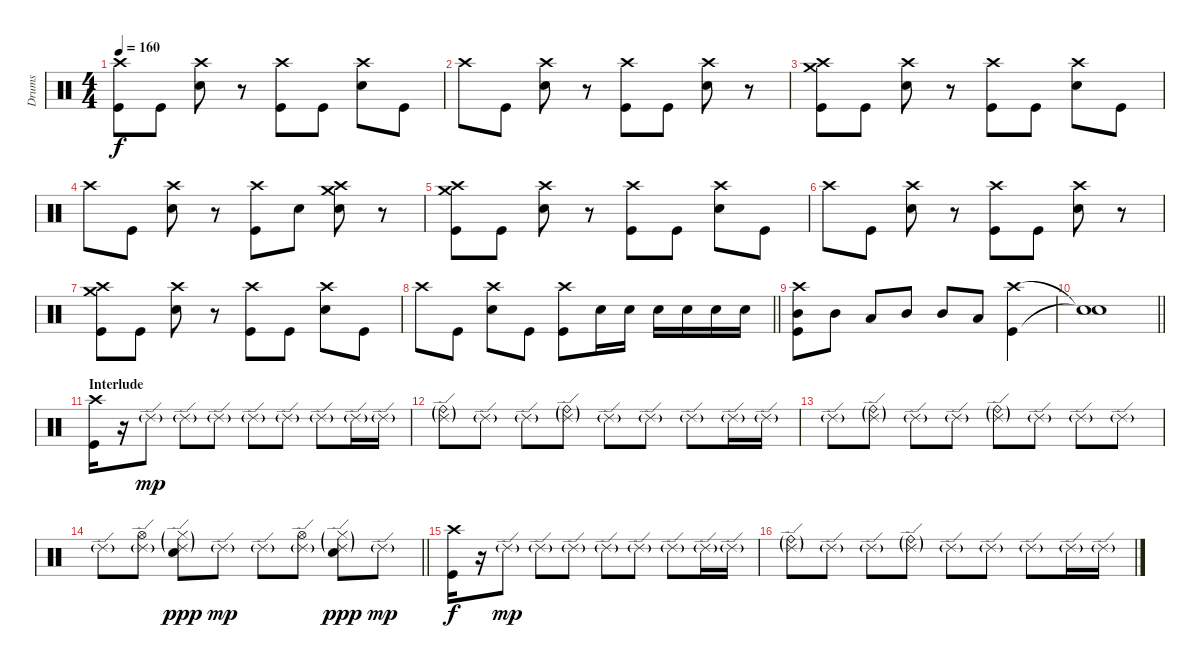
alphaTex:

\track ("Drums" "Drums") {instrument percussion}
\staff {score}
\articulation defaults
\ts (4 4)
\tempo 160
\clef neutral
\ks c
("Crash high (hit)" "Kick (hit)").8{dy f} "Kick (hit)".8 ("Crash high (hit)" "Snare (hit) 2").8 r.8 ("Crash high (hit)" "Kick (hit)").8 "Kick (hit)".8 ("Crash high (hit)" "Snare (hit) 2").8 "Kick (hit)".8 |
"Crash high (hit)".8 "Kick (hit)".8 ("Crash high (hit)" "Snare (hit) 2").8 r.8 ("Crash high (hit)" "Kick (hit)").8 "Kick (hit)".8 ("Crash high (hit)" "Snare (hit) 2").8 r.8 |
("Crash high (hit)" "Kick (hit)" "Crash medium (hit)").8 "Kick (hit)".8 ("Crash high (hit)" "Snare (hit) 2").8 r.8 ("Crash high (hit)" "Kick (hit)").8 "Kick (hit)".8 ("Crash high (hit)" "Snare (hit) 2").8 "Kick (hit)".8 |
"Crash high (hit)".8 "Kick (hit)".8 ("Crash high (hit)" "Snare (hit) 2").8 r.8 ("Crash high (hit)" "Kick (hit)").8 "Snare (hit) 2".8 ("Crash high (hit)" "Snare (hit) 2" "Crash medium (hit)").8 r.8 |
("Crash high (hit)" "Kick (hit)" "Crash medium (hit)").8 "Kick (hit)".8 ("Crash high (hit)" "Snare (hit) 2").8 r.8 ("Crash high (hit)" "Kick (hit)").8 "Kick (hit)".8 ("Crash high (hit)" "Snare (hit) 2").8 "Kick (hit)".8 |
"Crash high (hit)".8 "Kick (hit)".8 ("Crash high (hit)" "Snare (hit) 2").8 r.8 ("Crash high (hit)" "Kick (hit)").8 "Kick (hit)".8 ("Crash high (hit)" "Snare (hit) 2").8 r.8 |
("Crash high (hit)" "Kick (hit)" "Crash medium (hit)").8 "Kick (hit)".8 ("Crash high (hit)" "Snare (hit) 2").8 r.8 ("Crash high (hit)" "Kick (hit)").8 "Kick (hit)".8 ("Crash high (hit)" "Snare (hit) 2").8 "Kick (hit)".8 |
\barLineRight lightlight "Crash high (hit)".8 "Kick (hit)".8
("Crash high (hit)" "Snare (hit) 2").8 "Kick (hit)".8 ("Crash high (hit)" "Kick (hit)").8 "Snare (hit) 2".16 "Snare (hit) 2".16 "Snare (hit) 2".16 "Snare (hit) 2".16 "Snare (hit) 2".16 "Snare (hit) 2".16 |
("Crash high (hit)" "Mid Tom (hit)" "Kick (hit)").8 "Mid Tom (hit)".8 "Low Floor Tom (hit)".8 "Mid Tom (hit)".8 "Mid Tom (hit)".8 "Low Floor Tom (hit)".8 ("Crash high (hit)" "Kick (hit)").4 |
\barLineRight lightlight
("Snare (hit)"{t} "Snare (hit)"{t}).1 |
\section ("" "Interlude")
("Crash high (hit)" "Kick (hit)").16 r.16 "Ride (edge) 2"{g}.8{dy mp} "Ride (edge) 2"{g}.8 "Ride (edge) 2"{g}.8 "Ride (edge) 2"{g}.8 "Ride (edge) 2"{g}.8 "Ride (edge) 2"{g}.8 "Ride (edge) 2"{g}.16 "Ride (edge) 2"{g}.16 |
("Ride (edge) 2"{g} "Ride (bell)"{g}).8 "Ride (edge) 2"{g}.8 "Ride (edge) 2"{g}.8 ("Ride (edge) 2"{g} "Ride (bell)"{g}).8 "Ride (edge) 2"{g}.8 "Ride (edge) 2"{g}.8 "Ride (edge) 2"{g}.8 "Ride (edge) 2"{g}.16 "Ride (edge) 2"{g}.16 |
"Ride (edge) 2"{g}.8 ("Ride (edge) 2"{g} "Ride (bell)"{g}).8 "Ride (edge) 2"{g}.8 "Ride (edge) 2"{g}.8 ("Ride (edge) 2"{g} "Ride (bell)"{g}).8 "Ride (edge) 2"{g}.8 "Ride (edge) 2"{g}.8 "Ride (edge) 2"{g}.8 |
\barLineRight lightlight "Ride (edge) 2"{g}.8
("Ride (edge) 2"{g} "Hi-Hat (open)").8 ("Ride (edge) 2"{g} "Snare (hit) 2" "Hi-Hat (closed)"{g}).8{dy ppp} "Ride (edge) 2"{g}.8{dy mp} "Ride (edge) 2"{g}.8 ("Ride (edge) 2"{g} "Hi-Hat (open)").8 ("Ride (edge) 2"{g} "Snare (hit) 2" "Hi-Hat (closed)"{g}).8{dy ppp} "Ride (edge) 2"{g}.8{dy mp} |
("Crash high (hit)" "Kick (hit)").16{dy f} r.16 "Ride (edge) 2"{g}.8{dy mp} "Ride (edge) 2"{g}.8 "Ride (edge) 2"{g}.8 "Ride (edge) 2"{g}.8 "Ride (edge) 2"{g}.8 "Ride (edge) 2"{g}.8 "Ride (edge) 2"{g}.16 "Ride (edge) 2"{g}.16 |
("Ride (edge) 2"{g} "Ride (bell)"{g}).8 "Ride (edge) 2"{g}.8 "Ride (edge) 2"{g}.8 ("Ride (edge) 2"{g} "Ride (bell)"{g}).8 "Ride (edge) 2"{g}.8 "Ride (edge) 2"{g}.8 "Ride (edge) 2"{g}.8 "Ride (edge) 2"{g}.16 "Ride (edge) 2"{g}.16
